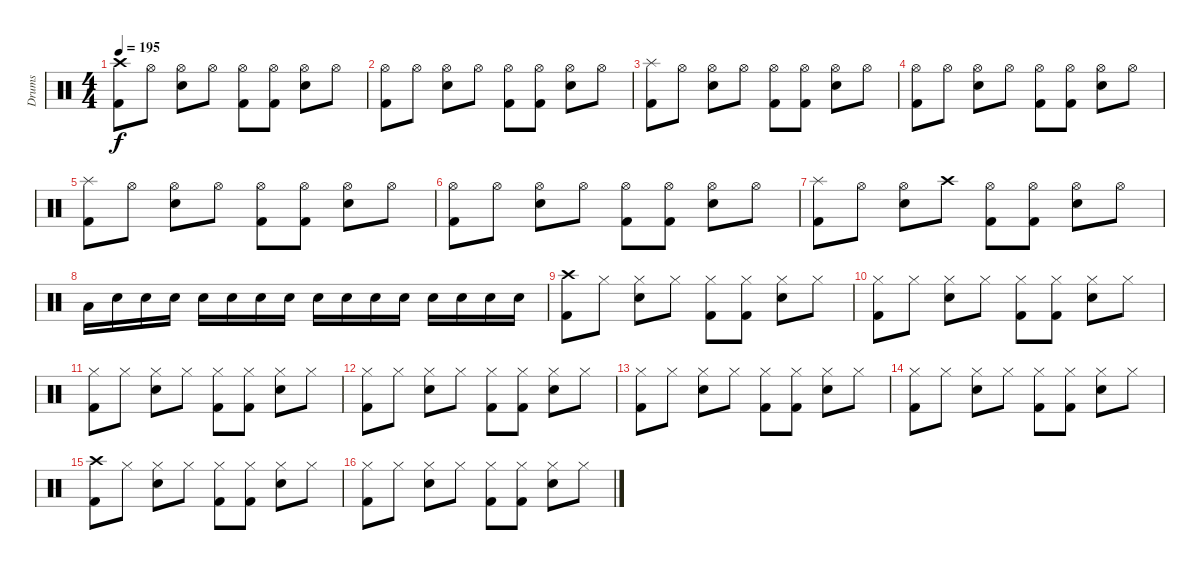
\track ("Drums" "Drums") {instrument percussion}
\staff {score}
\articulation defaults
\ts (4 4)
\tempo 195
\clef neutral
\ks c
("Crash high (hit)" "Kick (hit) 2").8{dy f} "Hi-Hat (open)".8 ("Hi-Hat (open)" "Snare (hit) 2").8 "Hi-Hat (open)".8 ("Hi-Hat (open)" "Kick (hit) 2").8 ("Hi-Hat (open)" "Kick (hit) 2").8 ("Hi-Hat (open)" "Snare (hit) 2").8 "Hi-Hat (open)".8 |
("Hi-Hat (open)" "Kick (hit) 2").8 "Hi-Hat (open)".8 ("Hi-Hat (open)" "Snare (hit) 2").8 "Hi-Hat (open)".8 ("Hi-Hat (open)" "Kick (hit) 2").8 ("Hi-Hat (open)" "Kick (hit) 2").8 ("Hi-Hat (open)" "Snare (hit) 2").8 "Hi-Hat (open)".8 |
("Splash (hit)" "Kick (hit) 2").8 "Hi-Hat (open)".8 ("Hi-Hat (open)" "Snare (hit) 2").8 "Hi-Hat (open)".8 ("Hi-Hat (open)" "Kick (hit) 2").8 ("Hi-Hat (open)" "Kick (hit) 2").8 ("Hi-Hat (open)" "Snare (hit) 2").8 "Hi-Hat (open)".8 |
("Hi-Hat (open)" "Kick (hit) 2").8 "Hi-Hat (open)".8 ("Hi-Hat (open)" "Snare (hit) 2").8 "Hi-Hat (open)".8 ("Hi-Hat (open)" "Kick (hit) 2").8 ("Hi-Hat (open)" "Kick (hit) 2").8 ("Hi-Hat (open)" "Snare (hit) 2").8 "Hi-Hat (open)".8 |
("Splash (hit)" "Kick (hit) 2").8 "Hi-Hat (open)".8 ("Hi-Hat (open)" "Snare (hit) 2").8 "Hi-Hat (open)".8 ("Hi-Hat (open)" "Kick (hit) 2").8 ("Hi-Hat (open)" "Kick (hit) 2").8 ("Hi-Hat (open)" "Snare (hit) 2").8 "Hi-Hat (open)".8 |
("Hi-Hat (open)" "Kick (hit) 2").8 "Hi-Hat (open)".8 ("Hi-Hat (open)" "Snare (hit) 2").8 "Hi-Hat (open)".8 ("Hi-Hat (open)" "Kick (hit) 2").8 ("Hi-Hat (open)" "Kick (hit) 2").8 ("Hi-Hat (open)" "Snare (hit) 2").8 "Hi-Hat (open)".8 |
("Splash (hit)" "Kick (hit) 2").8 "Hi-Hat (open)".8 ("Hi-Hat (open)" "Snare (hit) 2").8 "Crash high (hit)".8 ("Hi-Hat (open)" "Kick (hit) 2").8 ("Hi-Hat (open)" "Kick (hit) 2").8 ("Hi-Hat (open)" "Snare (hit) 2").8 "Hi-Hat (open)".8 |
"Low Tom (hit)".16 "Snare (hit) 2".16 "Snare (hit) 2".16 "Snare (hit) 2".16 "Snare (hit) 2".16 "Snare (hit) 2".16 "Snare (hit) 2".16 "Snare (hit) 2".16 "Snare (hit) 2".16 "Snare (hit) 2".16 "Snare (hit) 2".16 "Snare (hit) 2".16 "Snare (hit) 2".16 "Snare (hit) 2".16 "Snare (hit) 2".16 "Snare (hit) 2".16 |
("Crash high (hit)" "Kick (hit) 2").8 "Hi-Hat (closed)".8 ("Hi-Hat (closed)" "Snare (hit) 2").8 "Hi-Hat (closed)".8 ("Hi-Hat (closed)" "Kick (hit) 2").8 ("Hi-Hat (closed)" "Kick (hit) 2").8 ("Hi-Hat (closed)" "Snare (hit) 2").8 "Hi-Hat (closed)".8 |
("Hi-Hat (closed)" "Kick (hit) 2").8 "Hi-Hat (closed)".8 ("Hi-Hat (closed)" "Snare (hit) 2").8 "Hi-Hat (closed)".8 ("Hi-Hat (closed)" "Kick (hit) 2").8 ("Hi-Hat (closed)" "Kick (hit) 2").8 ("Hi-Hat (closed)" "Snare (hit) 2").8 "Hi-Hat (closed)".8 |
("Hi-Hat (closed)" "Kick (hit) 2").8 "Hi-Hat (closed)".8 ("Hi-Hat (closed)" "Snare (hit) 2").8 "Hi-Hat (closed)".8 ("Hi-Hat (closed)" "Kick (hit) 2").8 ("Hi-Hat (closed)" "Kick (hit) 2").8 ("Hi-Hat (closed)" "Snare (hit) 2").8 "Hi-Hat (closed)".8 |
("Hi-Hat (closed)" "Kick (hit) 2").8 "Hi-Hat (closed)".8 ("Hi-Hat (closed)" "Snare (hit) 2").8 "Hi-Hat (closed)".8 ("Hi-Hat (closed)" "Kick (hit) 2").8 ("Hi-Hat (closed)" "Kick (hit) 2").8 ("Hi-Hat (closed)" "Snare (hit) 2").8 "Hi-Hat (closed)".8 |
("Hi-Hat (closed)" "Kick (hit) 2").8 "Hi-Hat (closed)".8 ("Hi-Hat (closed)" "Snare (hit) 2").8 "Hi-Hat (closed)".8 ("Hi-Hat (closed)" "Kick (hit) 2").8 ("Hi-Hat (closed)" "Kick (hit) 2").8 ("Hi-Hat (closed)" "Snare (hit) 2").8 "Hi-Hat (closed)".8 |
("Hi-Hat (closed)" "Kick (hit) 2").8 "Hi-Hat (closed)".8 ("Hi-Hat (closed)" "Snare (hit) 2").8 "Hi-Hat (closed)".8 ("Hi-Hat (closed)" "Kick (hit) 2").8 ("Hi-Hat (closed)" "Kick (hit) 2").8 ("Hi-Hat (closed)" "Snare (hit) 2").8 "Hi-Hat (closed)".8 |
("Crash high (hit)" "Kick (hit) 2").8 "Hi-Hat (closed)".8 ("Hi-Hat (closed)" "Snare (hit) 2").8 "Hi-Hat (closed)".8 ("Hi-Hat (closed)" "Kick (hit) 2").8 ("Hi-Hat (closed)" "Kick (hit) 2").8 ("Hi-Hat (closed)" "Snare (hit) 2").8 "Hi-Hat (closed)".8 |
("Hi-Hat (closed)" "Kick (hit) 2").8 "Hi-Hat (closed)".8 ("Hi-Hat (closed)" "Snare (hit) 2").8 "Hi-Hat (closed)".8 ("Hi-Hat (closed)" "Kick (hit) 2").8 ("Hi-Hat (closed)" "Kick (hit) 2").8 ("Hi-Hat (closed)" "Snare (hit) 2").8 "Hi-Hat (closed)".8
